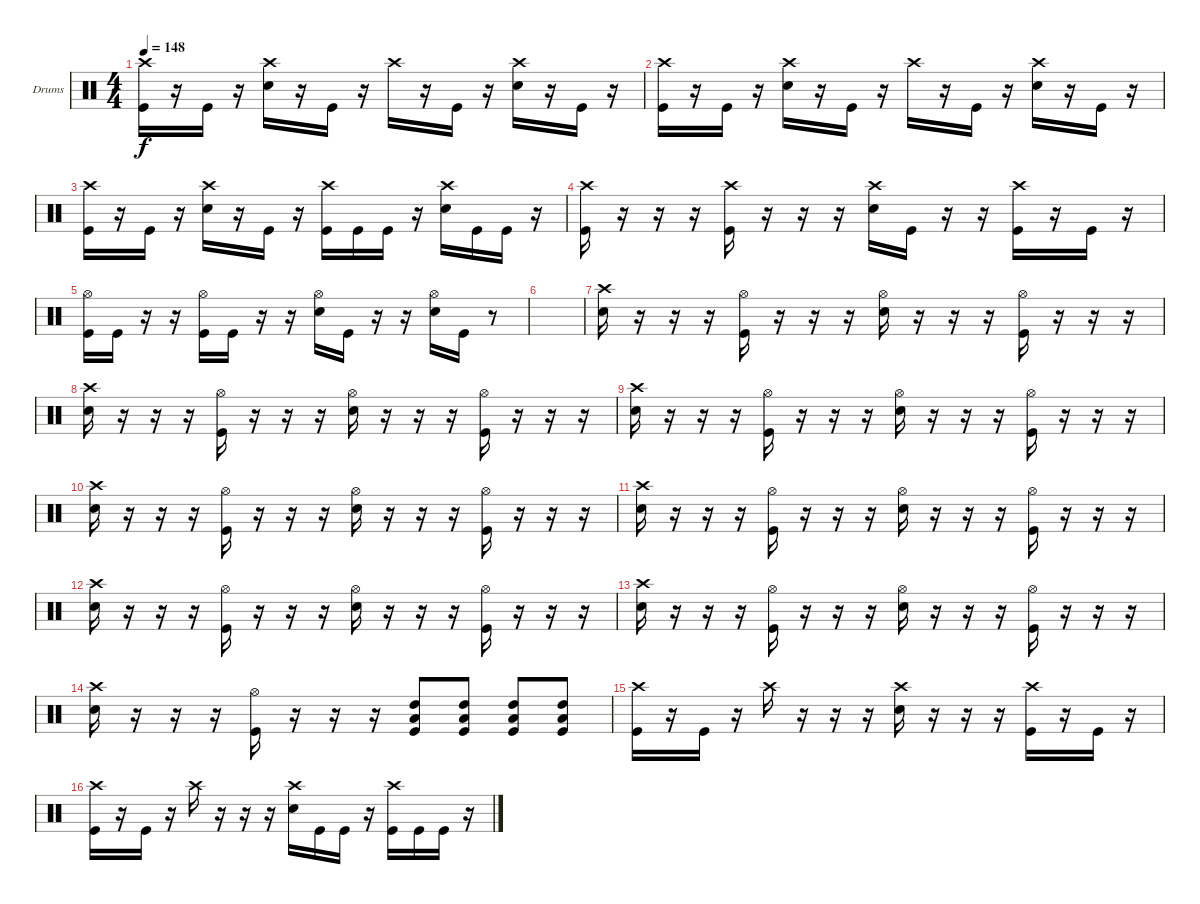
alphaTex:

\bracketExtendMode groupsimilarinstruments
\firstSystemTrackNameOrientation horizontal
\otherSystemsTrackNameOrientation horizontal
\track ("Drumkit" "Drums") {instrument percussion}
\staff {score}
\articulation defaults
\ts (4 4)
\tempo 148
\clef neutral
\ks c
("Kick (hit)" "Crash high (hit)").16{dy f} r.16 "Kick (hit)".16 r.16 ("Snare (hit) 2" "Crash high (hit)").16 r.16 "Kick (hit)".16 r.16 "Crash high (hit)".16 r.16 "Kick (hit)".16 r.16 ("Snare (hit) 2" "Crash high (hit)").16 r.16 "Kick (hit)".16 r.16 |
("Kick (hit)" "Crash high (hit)").16 r.16 "Kick (hit)".16 r.16 ("Snare (hit) 2" "Crash high (hit)").16 r.16 "Kick (hit)".16 r.16 "Crash high (hit)".16 r.16 "Kick (hit)".16 r.16 ("Snare (hit) 2" "Crash high (hit)").16 r.16 "Kick (hit)".16 r.16 |
("Kick (hit)" "Crash high (hit)").16 r.16 "Kick (hit)".16 r.16 ("Snare (hit) 2" "Crash high (hit)").16 r.16 "Kick (hit)".16 r.16 ("Kick (hit)" "Crash high (hit)").16 "Kick (hit)".16 "Kick (hit)".16 r.16 ("Snare (hit) 2" "Crash high (hit)").16 "Kick (hit)".16 "Kick (hit)".16 r.16 |
("Kick (hit)" "Crash high (hit)").16 r.16 r.16 r.16 ("Kick (hit)" "Crash high (hit)").16 r.16 r.16 r.16 ("Snare (hit) 2" "Crash high (hit)").16 "Kick (hit)".16 r.16 r.16 ("Kick (hit)" "Crash high (hit)").16 r.16 "Kick (hit)".16 r.16 |
("Kick (hit)" "Hi-Hat (open)").16 "Kick (hit)".16 r.16 r.16 ("Kick (hit)" "Hi-Hat (open)").16 "Kick (hit)".16 r.16 r.16 ("Snare (hit) 2" "Hi-Hat (open)").16 "Kick (hit)".16 r.16 r.16 ("Snare (hit) 2" "Hi-Hat (open)").16 "Kick (hit)".16 r.8 |
|
("Crash high (hit)" "Snare (hit) 2").16 r.16 r.16 r.16 ("Hi-Hat (open)" "Kick (hit)").16 r.16 r.16 r.16 ("Hi-Hat (open)" "Snare (hit) 2").16 r.16 r.16 r.16 ("Hi-Hat (open)" "Kick (hit)").16 r.16 r.16 r.16 |
("Crash high (hit)" "Snare (hit) 2").16 r.16 r.16 r.16 ("Hi-Hat (open)" "Kick (hit)").16 r.16 r.16 r.16 ("Hi-Hat (open)" "Snare (hit) 2").16 r.16 r.16 r.16 ("Hi-Hat (open)" "Kick (hit)").16 r.16 r.16 r.16 |
("Crash high (hit)" "Snare (hit) 2").16 r.16 r.16 r.16 ("Hi-Hat (open)" "Kick (hit)").16 r.16 r.16 r.16 ("Hi-Hat (open)" "Snare (hit) 2").16 r.16 r.16 r.16 ("Hi-Hat (open)" "Kick (hit)").16 r.16 r.16 r.16 |
("Crash high (hit)" "Snare (hit) 2").16 r.16 r.16 r.16 ("Hi-Hat (open)" "Kick (hit)").16 r.16 r.16 r.16 ("Hi-Hat (open)" "Snare (hit) 2").16 r.16 r.16 r.16 ("Hi-Hat (open)" "Kick (hit)").16 r.16 r.16 r.16 |
("Crash high (hit)" "Snare (hit) 2").16 r.16 r.16 r.16 ("Hi-Hat (open)" "Kick (hit)").16 r.16 r.16 r.16 ("Hi-Hat (open)" "Snare (hit) 2").16 r.16 r.16 r.16 ("Hi-Hat (open)" "Kick (hit)").16 r.16 r.16 r.16 |
("Crash high (hit)" "Snare (hit) 2").16 r.16 r.16 r.16 ("Hi-Hat (open)" "Kick (hit)").16 r.16 r.16 r.16 ("Hi-Hat (open)" "Snare (hit) 2").16 r.16 r.16 r.16 ("Hi-Hat (open)" "Kick (hit)").16 r.16 r.16 r.16 |
("Crash high (hit)" "Snare (hit) 2").16 r.16 r.16 r.16 ("Hi-Hat (open)" "Kick (hit)").16 r.16 r.16 r.16 ("Hi-Hat (open)" "Snare (hit) 2").16 r.16 r.16 r.16 ("Hi-Hat (open)" "Kick (hit)").16 r.16 r.16 r.16 |
("Crash high (hit)" "Snare (hit) 2").16 r.16 r.16 r.16 ("Hi-Hat (open)" "Kick (hit)").16 r.16 r.16 r.16 ("High Tom (hit)" "Low Tom (hit)" "Kick (hit)").8 ("High Tom (hit)" "Low Tom (hit)" "Kick (hit)").8 ("High Tom (hit)" "Low Tom (hit)" "Kick (hit)").8 ("High Tom (hit)" "Low Tom (hit)" "Kick (hit)").8 |
("Crash high (hit)" "Kick (hit)").16 r.16 "Kick (hit)".16 r.16 "Crash high (hit)".16 r.16 r.16 r.16 ("Snare (hit) 2" "Crash high (hit)").16 r.16 r.16 r.16 ("Kick (hit)" "Crash high (hit)").16 r.16 "Kick (hit)".16 r.16 |
("Crash high (hit)" "Kick (hit)").16 r.16 "Kick (hit)".16 r.16 "Crash high (hit)".16 r.16 r.16 r.16 ("Snare (hit) 2" "Crash high (hit)").16 "Kick (hit)".16 "Kick (hit)".16 r.16 ("Kick (hit)" "Crash high (hit)").16 "Kick (hit)".16 "Kick (hit)".16 r.16
